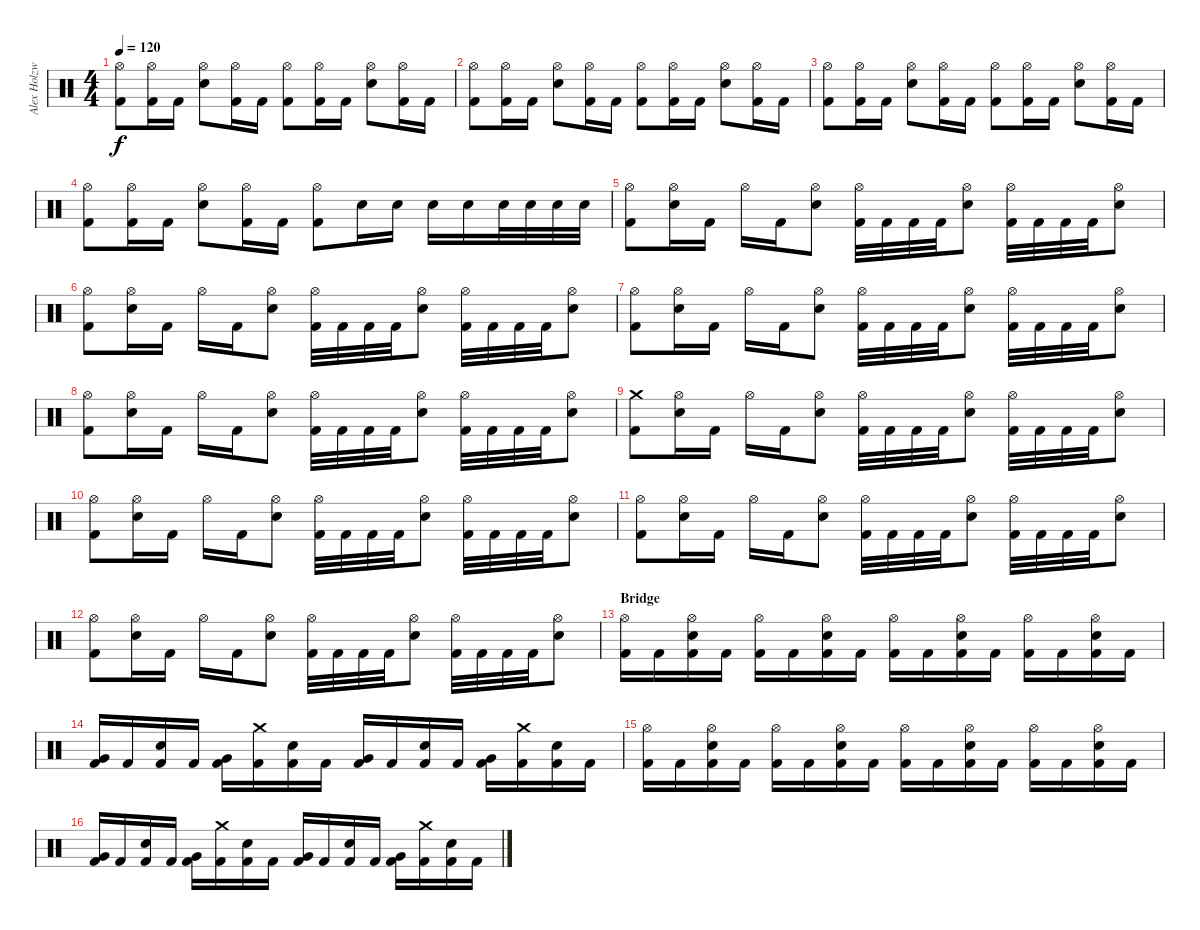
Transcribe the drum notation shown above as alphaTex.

\track ("Alex Holzwarth - Drums" "Alex Holzw") {instrument percussion}
\staff {score}
\articulation defaults
\ts (4 4)
\tempo 120
\clef neutral
\ks c
("Hi-Hat (open)" "Kick (hit) 2").8{dy f} ("Hi-Hat (open)" "Kick (hit) 2").16 "Kick (hit) 2".16 ("Hi-Hat (open)" "Electric Snare (hit)").8 ("Hi-Hat (open)" "Kick (hit) 2").16 "Kick (hit) 2".16 ("Hi-Hat (open)" "Kick (hit) 2").8 ("Hi-Hat (open)" "Kick (hit) 2").16 "Kick (hit) 2".16 ("Hi-Hat (open)" "Electric Snare (hit)").8 ("Hi-Hat (open)" "Kick (hit) 2").16 "Kick (hit) 2".16 |
("Hi-Hat (open)" "Kick (hit) 2").8 ("Hi-Hat (open)" "Kick (hit) 2").16 "Kick (hit) 2".16 ("Hi-Hat (open)" "Electric Snare (hit)").8 ("Hi-Hat (open)" "Kick (hit) 2").16 "Kick (hit) 2".16 ("Hi-Hat (open)" "Kick (hit) 2").8 ("Hi-Hat (open)" "Kick (hit) 2").16 "Kick (hit) 2".16 ("Hi-Hat (open)" "Electric Snare (hit)").8 ("Hi-Hat (open)" "Kick (hit) 2").16 "Kick (hit) 2".16 |
("Hi-Hat (open)" "Kick (hit) 2").8 ("Hi-Hat (open)" "Kick (hit) 2").16 "Kick (hit) 2".16 ("Hi-Hat (open)" "Electric Snare (hit)").8 ("Hi-Hat (open)" "Kick (hit) 2").16 "Kick (hit) 2".16 ("Hi-Hat (open)" "Kick (hit) 2").8 ("Hi-Hat (open)" "Kick (hit) 2").16 "Kick (hit) 2".16 ("Hi-Hat (open)" "Electric Snare (hit)").8 ("Hi-Hat (open)" "Kick (hit) 2").16 "Kick (hit) 2".16 |
("Hi-Hat (open)" "Kick (hit) 2").8 ("Hi-Hat (open)" "Kick (hit) 2").16 "Kick (hit) 2".16 ("Hi-Hat (open)" "Electric Snare (hit)").8 ("Hi-Hat (open)" "Kick (hit) 2").16 "Kick (hit) 2".16 ("Hi-Hat (open)" "Kick (hit) 2").8 "Electric Snare (hit)".16 "Electric Snare (hit)".16 "Electric Snare (hit)".16 "Electric Snare (hit)".16 "Electric Snare (hit)".32 "Electric Snare (hit)".32 "Electric Snare (hit)".32 "Electric Snare (hit)".32 |
("Hi-Hat (open)" "Kick (hit) 2").8 ("Hi-Hat (open)" "Electric Snare (hit)").16 "Kick (hit) 2".16 "Hi-Hat (open)".16 "Kick (hit) 2".16 ("Hi-Hat (open)" "Electric Snare (hit)").8 ("Hi-Hat (open)" "Kick (hit) 2").32 "Kick (hit) 2".32 "Kick (hit) 2".32 "Kick (hit) 2".32 ("Hi-Hat (open)" "Electric Snare (hit)").8 ("Hi-Hat (open)" "Kick (hit) 2").32 "Kick (hit) 2".32 "Kick (hit) 2".32 "Kick (hit) 2".32 ("Hi-Hat (open)" "Electric Snare (hit)").8 |
("Hi-Hat (open)" "Kick (hit) 2").8 ("Hi-Hat (open)" "Electric Snare (hit)").16 "Kick (hit) 2".16 "Hi-Hat (open)".16 "Kick (hit) 2".16 ("Hi-Hat (open)" "Electric Snare (hit)").8 ("Hi-Hat (open)" "Kick (hit) 2").32 "Kick (hit) 2".32 "Kick (hit) 2".32 "Kick (hit) 2".32 ("Hi-Hat (open)" "Electric Snare (hit)").8 ("Hi-Hat (open)" "Kick (hit) 2").32 "Kick (hit) 2".32 "Kick (hit) 2".32 "Kick (hit) 2".32 ("Hi-Hat (open)" "Electric Snare (hit)").8 |
("Hi-Hat (open)" "Kick (hit) 2").8 ("Hi-Hat (open)" "Electric Snare (hit)").16 "Kick (hit) 2".16 "Hi-Hat (open)".16 "Kick (hit) 2".16 ("Hi-Hat (open)" "Electric Snare (hit)").8 ("Hi-Hat (open)" "Kick (hit) 2").32 "Kick (hit) 2".32 "Kick (hit) 2".32 "Kick (hit) 2".32 ("Hi-Hat (open)" "Electric Snare (hit)").8 ("Hi-Hat (open)" "Kick (hit) 2").32 "Kick (hit) 2".32 "Kick (hit) 2".32 "Kick (hit) 2".32 ("Hi-Hat (open)" "Electric Snare (hit)").8 |
("Hi-Hat (open)" "Kick (hit) 2").8 ("Hi-Hat (open)" "Electric Snare (hit)").16 "Kick (hit) 2".16 "Hi-Hat (open)".16 "Kick (hit) 2".16 ("Hi-Hat (open)" "Electric Snare (hit)").8 ("Hi-Hat (open)" "Kick (hit) 2").32 "Kick (hit) 2".32 "Kick (hit) 2".32 "Kick (hit) 2".32 ("Hi-Hat (open)" "Electric Snare (hit)").8 ("Hi-Hat (open)" "Kick (hit) 2").32 "Kick (hit) 2".32 "Kick (hit) 2".32 "Kick (hit) 2".32 ("Hi-Hat (open)" "Electric Snare (hit)").8 |
("Crash medium (hit)" "Kick (hit) 2").8 ("Hi-Hat (open)" "Electric Snare (hit)").16 "Kick (hit) 2".16 "Hi-Hat (open)".16 "Kick (hit) 2".16 ("Hi-Hat (open)" "Electric Snare (hit)").8 ("Hi-Hat (open)" "Kick (hit) 2").32 "Kick (hit) 2".32 "Kick (hit) 2".32 "Kick (hit) 2".32 ("Hi-Hat (open)" "Electric Snare (hit)").8 ("Hi-Hat (open)" "Kick (hit) 2").32 "Kick (hit) 2".32 "Kick (hit) 2".32 "Kick (hit) 2".32 ("Hi-Hat (open)" "Electric Snare (hit)").8 |
("Hi-Hat (open)" "Kick (hit) 2").8 ("Hi-Hat (open)" "Electric Snare (hit)").16 "Kick (hit) 2".16 "Hi-Hat (open)".16 "Kick (hit) 2".16 ("Hi-Hat (open)" "Electric Snare (hit)").8 ("Hi-Hat (open)" "Kick (hit) 2").32 "Kick (hit) 2".32 "Kick (hit) 2".32 "Kick (hit) 2".32 ("Hi-Hat (open)" "Electric Snare (hit)").8 ("Hi-Hat (open)" "Kick (hit) 2").32 "Kick (hit) 2".32 "Kick (hit) 2".32 "Kick (hit) 2".32 ("Hi-Hat (open)" "Electric Snare (hit)").8 |
("Hi-Hat (open)" "Kick (hit) 2").8 ("Hi-Hat (open)" "Electric Snare (hit)").16 "Kick (hit) 2".16 "Hi-Hat (open)".16 "Kick (hit) 2".16 ("Hi-Hat (open)" "Electric Snare (hit)").8 ("Hi-Hat (open)" "Kick (hit) 2").32 "Kick (hit) 2".32 "Kick (hit) 2".32 "Kick (hit) 2".32 ("Hi-Hat (open)" "Electric Snare (hit)").8 ("Hi-Hat (open)" "Kick (hit) 2").32 "Kick (hit) 2".32 "Kick (hit) 2".32 "Kick (hit) 2".32 ("Hi-Hat (open)" "Electric Snare (hit)").8 |
("Hi-Hat (open)" "Kick (hit) 2").8 ("Hi-Hat (open)" "Electric Snare (hit)").16 "Kick (hit) 2".16 "Hi-Hat (open)".16 "Kick (hit) 2".16 ("Hi-Hat (open)" "Electric Snare (hit)").8 ("Hi-Hat (open)" "Kick (hit) 2").32 "Kick (hit) 2".32 "Kick (hit) 2".32 "Kick (hit) 2".32 ("Hi-Hat (open)" "Electric Snare (hit)").8 ("Hi-Hat (open)" "Kick (hit) 2").32 "Kick (hit) 2".32 "Kick (hit) 2".32 "Kick (hit) 2".32 ("Hi-Hat (open)" "Electric Snare (hit)").8 |
\section ("" "Bridge")
("Hi-Hat (open)" "Kick (hit) 2").16 "Kick (hit) 2".16 ("Hi-Hat (open)" "Electric Snare (hit)" "Kick (hit) 2").16 "Kick (hit) 2".16 ("Hi-Hat (open)" "Kick (hit) 2").16 "Kick (hit) 2".16 ("Hi-Hat (open)" "Electric Snare (hit)" "Kick (hit) 2").16 "Kick (hit) 2".16 ("Hi-Hat (open)" "Kick (hit) 2").16 "Kick (hit) 2".16 ("Hi-Hat (open)" "Electric Snare (hit)" "Kick (hit) 2").16 "Kick (hit) 2".16 ("Hi-Hat (open)" "Kick (hit) 2").16 "Kick (hit) 2".16 ("Hi-Hat (open)" "Electric Snare (hit)" "Kick (hit) 2").16 "Kick (hit) 2".16 |
("Very Low Tom (hit)" "Kick (hit) 2").16 "Kick (hit) 2".16 ("Electric Snare (hit)" "Kick (hit) 2").16 "Kick (hit) 2".16 ("Very Low Tom (hit)" "Kick (hit) 2").16 ("Crash medium (hit)" "Kick (hit) 2").16 ("Electric Snare (hit)" "Kick (hit) 2").16 "Kick (hit) 2".16 ("Very Low Tom (hit)" "Kick (hit) 2").16 "Kick (hit) 2".16 ("Electric Snare (hit)" "Kick (hit) 2").16 "Kick (hit) 2".16 ("Very Low Tom (hit)" "Kick (hit) 2").16 ("Crash medium (hit)" "Kick (hit) 2").16 ("Electric Snare (hit)" "Kick (hit) 2").16 "Kick (hit) 2".16 |
("Hi-Hat (open)" "Kick (hit) 2").16 "Kick (hit) 2".16 ("Hi-Hat (open)" "Electric Snare (hit)" "Kick (hit) 2").16 "Kick (hit) 2".16 ("Hi-Hat (open)" "Kick (hit) 2").16 "Kick (hit) 2".16 ("Hi-Hat (open)" "Electric Snare (hit)" "Kick (hit) 2").16 "Kick (hit) 2".16 ("Hi-Hat (open)" "Kick (hit) 2").16 "Kick (hit) 2".16 ("Hi-Hat (open)" "Electric Snare (hit)" "Kick (hit) 2").16 "Kick (hit) 2".16 ("Hi-Hat (open)" "Kick (hit) 2").16 "Kick (hit) 2".16 ("Hi-Hat (open)" "Electric Snare (hit)" "Kick (hit) 2").16 "Kick (hit) 2".16 |
("Very Low Tom (hit)" "Kick (hit) 2").16 "Kick (hit) 2".16 ("Electric Snare (hit)" "Kick (hit) 2").16 "Kick (hit) 2".16 ("Very Low Tom (hit)" "Kick (hit) 2").16 ("Crash medium (hit)" "Kick (hit) 2").16 ("Electric Snare (hit)" "Kick (hit) 2").16 "Kick (hit) 2".16 ("Very Low Tom (hit)" "Kick (hit) 2").16 "Kick (hit) 2".16 ("Electric Snare (hit)" "Kick (hit) 2").16 "Kick (hit) 2".16 ("Very Low Tom (hit)" "Kick (hit) 2").16 ("Crash medium (hit)" "Kick (hit) 2").16 ("Electric Snare (hit)" "Kick (hit) 2").16 "Kick (hit) 2".16
